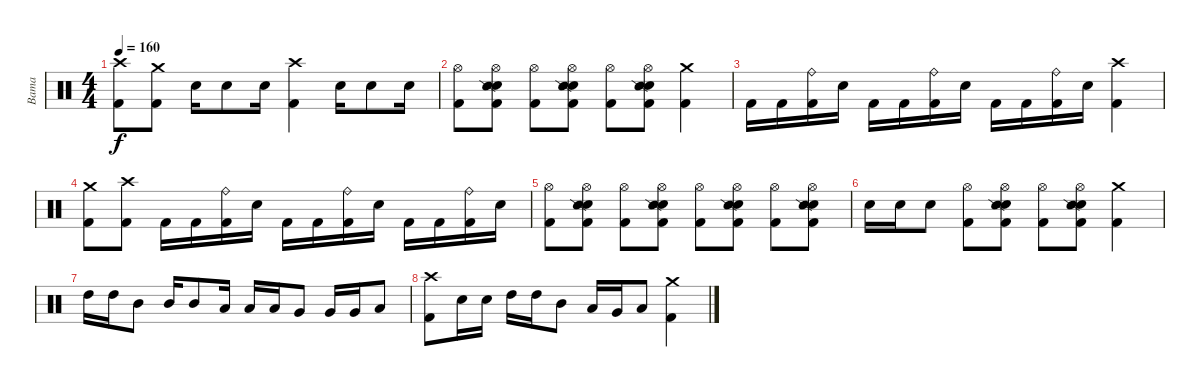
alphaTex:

\track ("Bama" "Bama") {instrument percussion}
\staff {score}
\articulation defaults
\ts (4 4)
\tempo 160
\clef neutral
\ks c
("Crash high (hit)" "Kick (hit) 2").8{dy f} ("Crash medium (hit)" "Kick (hit) 2").8 "Electric Snare (hit)".16 "Electric Snare (hit)".8 "Electric Snare (hit)".16 ("Crash high (hit)" "Kick (hit) 2").4 "Electric Snare (hit)".16 "Electric Snare (hit)".8 "Electric Snare (hit)".16 |
("Hi-Hat (open)" "Kick (hit) 2").8 ("Hi-Hat (open)" "Electric Snare (hit)" "Snare (side stick) 2" "Kick (hit) 2").8 ("Hi-Hat (open)" "Kick (hit) 2").8 ("Hi-Hat (open)" "Electric Snare (hit)" "Snare (side stick) 2" "Kick (hit) 2").8 ("Hi-Hat (open)" "Kick (hit) 2").8 ("Hi-Hat (open)" "Electric Snare (hit)" "Snare (side stick) 2" "Kick (hit) 2").8 ("Crash medium (hit)" "Kick (hit) 2").4 |
"Kick (hit) 2".16 "Kick (hit) 2".16 ("Ride (bell)" "Kick (hit) 2").16 "Electric Snare (hit)".16 "Kick (hit) 2".16 "Kick (hit) 2".16 ("Ride (bell)" "Kick (hit) 2").16 "Electric Snare (hit)".16 "Kick (hit) 2".16 "Kick (hit) 2".16 ("Ride (bell)" "Kick (hit) 2").16 "Electric Snare (hit)".16 ("Crash high (hit)" "Kick (hit) 2").4 |
("Crash medium (hit)" "Kick (hit) 2").8 ("Crash high (hit)" "Kick (hit) 2").8 "Kick (hit) 2".16 "Kick (hit) 2".16 ("Ride (bell)" "Kick (hit) 2").16 "Electric Snare (hit)".16 "Kick (hit) 2".16 "Kick (hit) 2".16 ("Ride (bell)" "Kick (hit) 2").16 "Electric Snare (hit)".16 "Kick (hit) 2".16 "Kick (hit) 2".16 ("Ride (bell)" "Kick (hit) 2").16 "Electric Snare (hit)".16 |
("Hi-Hat (open)" "Kick (hit) 2").8 ("Hi-Hat (open)" "Electric Snare (hit)" "Snare (side stick) 2" "Kick (hit) 2").8 ("Hi-Hat (open)" "Kick (hit) 2").8 ("Hi-Hat (open)" "Electric Snare (hit)" "Snare (side stick) 2" "Kick (hit) 2").8 ("Hi-Hat (open)" "Kick (hit) 2").8 ("Hi-Hat (open)" "Electric Snare (hit)" "Snare (side stick) 2" "Kick (hit) 2").8 ("Hi-Hat (open)" "Kick (hit) 2").8 ("Hi-Hat (open)" "Electric Snare (hit)" "Snare (side stick) 2" "Kick (hit) 2").8 |
"Electric Snare (hit)".16 "Electric Snare (hit)".16 "Electric Snare (hit)".8 ("Hi-Hat (open)" "Kick (hit) 2").8 ("Hi-Hat (open)" "Electric Snare (hit)" "Snare (side stick) 2" "Kick (hit) 2").8 ("Hi-Hat (open)" "Kick (hit) 2").8 ("Hi-Hat (open)" "Electric Snare (hit)" "Snare (side stick) 2" "Kick (hit) 2").8 ("Crash medium (hit)" "Kick (hit) 2").4 |
"High Tom (hit)".16 "High Tom (hit)".16 "Mid Tom (hit)".8 "Mid Tom (hit)".16 "Mid Tom (hit)".8 "Low Tom (hit)".16 "Low Tom (hit)".16 "Low Tom (hit)".16 "Very Low Tom (hit)".8 "Very Low Tom (hit)".16 "Very Low Tom (hit)".16 "Low Floor Tom (hit)".8 |
("Crash high (hit)" "Kick (hit) 2").8 "Electric Snare (hit)".16 "Electric Snare (hit)".16 "High Tom (hit)".16 "High Tom (hit)".16 "Mid Tom (hit)".8 "Low Tom (hit)".16 "Very Low Tom (hit)".16 "Low Floor Tom (hit)".8 ("Crash medium (hit)" "Kick (hit) 2").4
